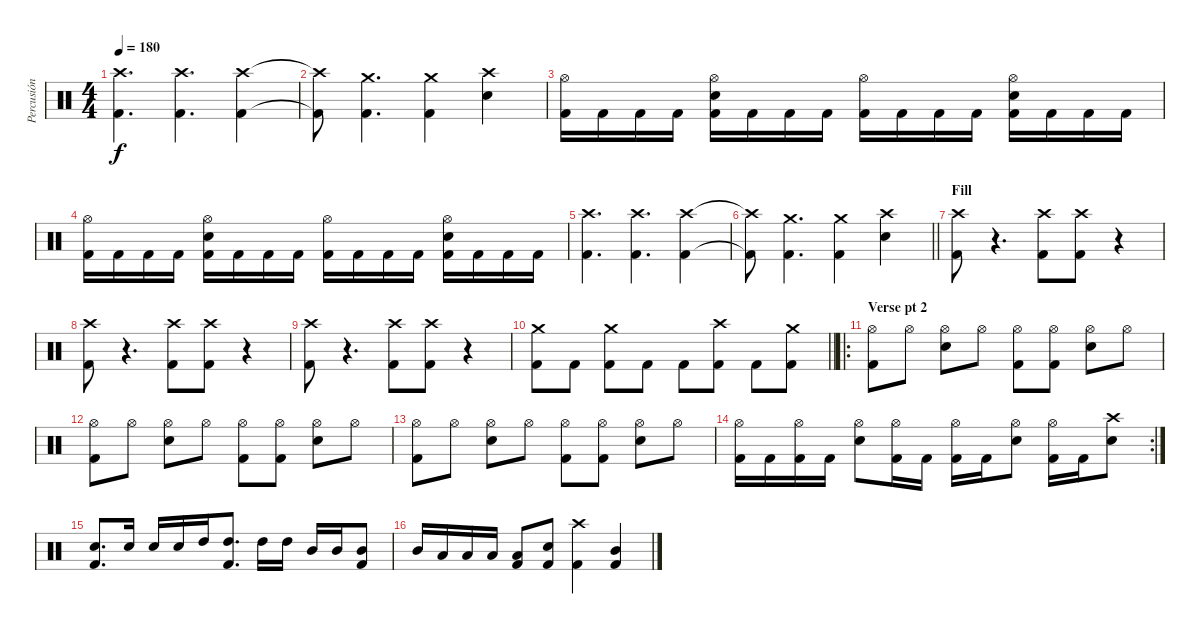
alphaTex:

\track ("Percusión" "Percusión") {instrument percussion}
\staff {score}
\articulation defaults
\ts (4 4)
\tempo 180
\clef neutral
\ks c
("Crash high (hit)" "Kick (hit) 2").4{d dy f} ("Crash high (hit)" "Kick (hit) 2").4{d} ("Crash high (hit)" "Kick (hit) 2").4 |
("Crash high (hit)"{t} "Kick (hit) 2"{t}).8 ("Crash medium (hit)" "Kick (hit) 2").4{d} ("Crash medium (hit)" "Kick (hit) 2").4 ("Crash high (hit)" "Snare (hit) 2").4 |
("Hi-Hat (open)" "Kick (hit) 2").16 "Kick (hit) 2".16 "Kick (hit) 2".16 "Kick (hit) 2".16 ("Hi-Hat (open)" "Snare (hit) 2" "Kick (hit) 2").16 "Kick (hit) 2".16 "Kick (hit) 2".16 "Kick (hit) 2".16 ("Hi-Hat (open)" "Kick (hit) 2").16 "Kick (hit) 2".16 "Kick (hit) 2".16 "Kick (hit) 2".16 ("Hi-Hat (open)" "Snare (hit) 2" "Kick (hit) 2").16 "Kick (hit) 2".16 "Kick (hit) 2".16 "Kick (hit) 2".16 |
("Hi-Hat (open)" "Kick (hit) 2").16 "Kick (hit) 2".16 "Kick (hit) 2".16 "Kick (hit) 2".16 ("Hi-Hat (open)" "Snare (hit) 2" "Kick (hit) 2").16 "Kick (hit) 2".16 "Kick (hit) 2".16 "Kick (hit) 2".16 ("Hi-Hat (open)" "Kick (hit) 2").16 "Kick (hit) 2".16 "Kick (hit) 2".16 "Kick (hit) 2".16 ("Hi-Hat (open)" "Snare (hit) 2" "Kick (hit) 2").16 "Kick (hit) 2".16 "Kick (hit) 2".16 "Kick (hit) 2".16 |
("Crash high (hit)" "Kick (hit) 2").4{d} ("Crash high (hit)" "Kick (hit) 2").4{d} ("Crash high (hit)" "Kick (hit) 2").4 |
\barLineRight lightlight
("Crash high (hit)"{t} "Kick (hit) 2"{t}).8 ("Crash medium (hit)" "Kick (hit) 2").4{d} ("Crash medium (hit)" "Kick (hit) 2").4 ("Crash high (hit)" "Snare (hit) 2").4 |
\section ("" "Fill")
("Crash high (hit)" "Kick (hit) 2").8 r.4{d} ("Crash high (hit)" "Kick (hit) 2").8 ("Crash high (hit)" "Kick (hit) 2").8 r.4 |
("Crash high (hit)" "Kick (hit) 2").8 r.4{d} ("Crash high (hit)" "Kick (hit) 2").8 ("Crash high (hit)" "Kick (hit) 2").8 r.4 |
("Crash high (hit)" "Kick (hit) 2").8 r.4{d} ("Crash high (hit)" "Kick (hit) 2").8 ("Crash high (hit)" "Kick (hit) 2").8 r.4 |
\barLineRight lightlight
("Crash medium (hit)" "Kick (hit) 2").8 "Kick (hit) 2".8 ("Crash medium (hit)" "Kick (hit) 2").8 "Kick (hit) 2".8 "Kick (hit) 2".8 ("Crash high (hit)" "Kick (hit) 2").8 "Kick (hit) 2".8 ("Crash medium (hit)" "Kick (hit) 2").8 |
\ro
\section ("" "Verse pt 2")
("Hi-Hat (open)" "Kick (hit) 2").8 "Hi-Hat (open)".8 ("Hi-Hat (open)" "Snare (hit) 2").8 "Hi-Hat (open)".8 ("Hi-Hat (open)" "Kick (hit) 2").8 ("Hi-Hat (open)" "Kick (hit) 2").8 ("Hi-Hat (open)" "Snare (hit) 2").8 "Hi-Hat (open)".8 |
("Hi-Hat (open)" "Kick (hit) 2").8 "Hi-Hat (open)".8 ("Hi-Hat (open)" "Snare (hit) 2").8 "Hi-Hat (open)".8 ("Hi-Hat (open)" "Kick (hit) 2").8 ("Hi-Hat (open)" "Kick (hit) 2").8 ("Hi-Hat (open)" "Snare (hit) 2").8 "Hi-Hat (open)".8 |
("Hi-Hat (open)" "Kick (hit) 2").8 "Hi-Hat (open)".8 ("Hi-Hat (open)" "Snare (hit) 2").8 "Hi-Hat (open)".8 ("Hi-Hat (open)" "Kick (hit) 2").8 ("Hi-Hat (open)" "Kick (hit) 2").8 ("Hi-Hat (open)" "Snare (hit) 2").8 "Hi-Hat (open)".8 |
\rc 2
("Hi-Hat (open)" "Kick (hit) 2").16 "Kick (hit) 2".16 ("Hi-Hat (open)" "Kick (hit) 2").16 "Kick (hit) 2".16 ("Hi-Hat (open)" "Snare (hit) 2").8 ("Hi-Hat (open)" "Kick (hit) 2").16 "Kick (hit) 2".16 ("Hi-Hat (open)" "Kick (hit) 2").16 "Kick (hit) 2".16 ("Hi-Hat (open)" "Snare (hit) 2").8 ("Hi-Hat (open)" "Kick (hit) 2").16 "Kick (hit) 2".16 ("Crash high (hit)" "Snare (hit) 2").8 |
("Snare (hit) 2" "Kick (hit) 2").8{d} "Snare (hit) 2".16 "Snare (hit) 2".16 "Snare (hit) 2".16 "High Tom (hit)".16 ("High Tom (hit)" "Kick (hit) 2").8{d} "High Tom (hit)".16 "High Tom (hit)".16 "Mid Tom (hit)".16 "Mid Tom (hit)".16 ("Mid Tom (hit)" "Kick (hit) 2").8 |
"Mid Tom (hit)".16 "Low Tom (hit)".16 "Low Tom (hit)".16 "Low Tom (hit)".16 ("Low Tom (hit)" "Kick (hit) 2").8 ("Snare (hit) 2" "Kick (hit) 2").8 ("Crash high (hit)" "Kick (hit) 2").4 ("Mid Tom (hit)" "Kick (hit) 2").4
